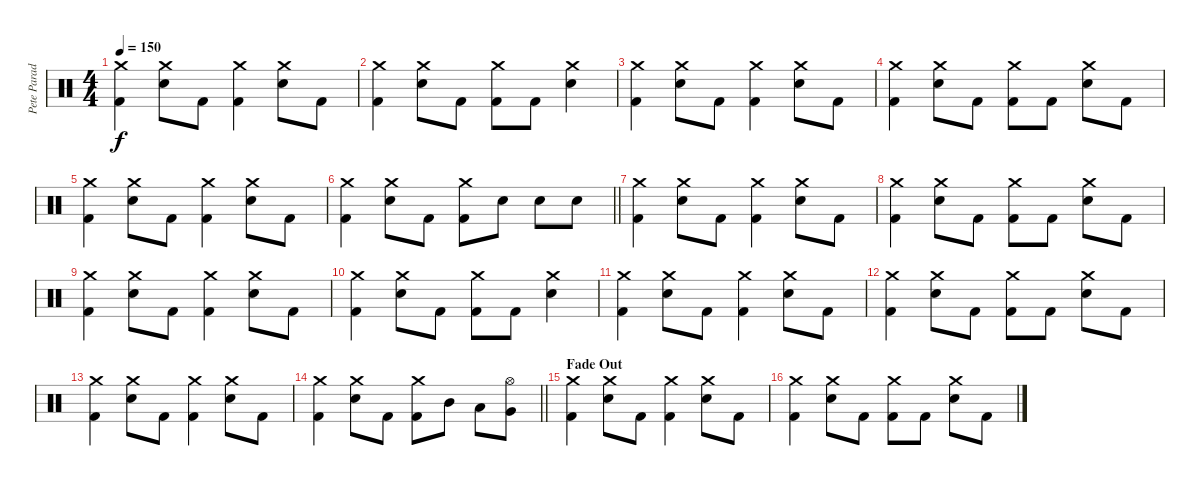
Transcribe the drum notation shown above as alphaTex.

\track ("Pete Parada - Drums" "Pete Parad") {instrument percussion}
\staff {score}
\articulation defaults
\ts (4 4)
\tempo 150
\clef neutral
\ks c
("Crash medium (hit)" "Kick (hit) 2").4{dy f} ("Crash medium (hit)" "Electric Snare (hit)").8 "Kick (hit) 2".8 ("Crash medium (hit)" "Kick (hit) 2").4 ("Crash medium (hit)" "Electric Snare (hit)").8 "Kick (hit) 2".8 |
("Crash medium (hit)" "Kick (hit) 2").4 ("Crash medium (hit)" "Electric Snare (hit)").8 "Kick (hit) 2".8 ("Crash medium (hit)" "Kick (hit) 2").8 "Kick (hit) 2".8 ("Crash medium (hit)" "Electric Snare (hit)").4 |
("Crash medium (hit)" "Kick (hit) 2").4 ("Crash medium (hit)" "Electric Snare (hit)").8 "Kick (hit) 2".8 ("Crash medium (hit)" "Kick (hit) 2").4 ("Crash medium (hit)" "Electric Snare (hit)").8 "Kick (hit) 2".8 |
("Crash medium (hit)" "Kick (hit) 2").4 ("Crash medium (hit)" "Electric Snare (hit)").8 "Kick (hit) 2".8 ("Crash medium (hit)" "Kick (hit) 2").8 "Kick (hit) 2".8 ("Crash medium (hit)" "Electric Snare (hit)").8 "Kick (hit) 2".8 |
("Crash medium (hit)" "Kick (hit) 2").4 ("Crash medium (hit)" "Electric Snare (hit)").8 "Kick (hit) 2".8 ("Crash medium (hit)" "Kick (hit) 2").4 ("Crash medium (hit)" "Electric Snare (hit)").8 "Kick (hit) 2".8 |
\barLineRight lightlight
("Crash medium (hit)" "Kick (hit) 2").4 ("Crash medium (hit)" "Electric Snare (hit)").8 "Kick (hit) 2".8 ("Crash medium (hit)" "Kick (hit) 2").8 "Electric Snare (hit)".8 "Electric Snare (hit)".8 "Electric Snare (hit)".8 |
("Crash medium (hit)" "Kick (hit) 2").4 ("Crash medium (hit)" "Electric Snare (hit)").8 "Kick (hit) 2".8 ("Crash medium (hit)" "Kick (hit) 2").4 ("Crash medium (hit)" "Electric Snare (hit)").8 "Kick (hit) 2".8 |
("Crash medium (hit)" "Kick (hit) 2").4 ("Crash medium (hit)" "Electric Snare (hit)").8 "Kick (hit) 2".8 ("Crash medium (hit)" "Kick (hit) 2").8 "Kick (hit) 2".8 ("Crash medium (hit)" "Electric Snare (hit)").8 "Kick (hit) 2".8 |
("Crash medium (hit)" "Kick (hit) 2").4 ("Crash medium (hit)" "Electric Snare (hit)").8 "Kick (hit) 2".8 ("Crash medium (hit)" "Kick (hit) 2").4 ("Crash medium (hit)" "Electric Snare (hit)").8 "Kick (hit) 2".8 |
("Crash medium (hit)" "Kick (hit) 2").4 ("Crash medium (hit)" "Electric Snare (hit)").8 "Kick (hit) 2".8 ("Crash medium (hit)" "Kick (hit) 2").8 "Kick (hit) 2".8 ("Crash medium (hit)" "Electric Snare (hit)").4 |
("Crash medium (hit)" "Kick (hit) 2").4 ("Crash medium (hit)" "Electric Snare (hit)").8 "Kick (hit) 2".8 ("Crash medium (hit)" "Kick (hit) 2").4 ("Crash medium (hit)" "Electric Snare (hit)").8 "Kick (hit) 2".8 |
("Crash medium (hit)" "Kick (hit) 2").4 ("Crash medium (hit)" "Electric Snare (hit)").8 "Kick (hit) 2".8 ("Crash medium (hit)" "Kick (hit) 2").8 "Kick (hit) 2".8 ("Crash medium (hit)" "Electric Snare (hit)").8 "Kick (hit) 2".8 |
("Crash medium (hit)" "Kick (hit) 2").4 ("Crash medium (hit)" "Electric Snare (hit)").8 "Kick (hit) 2".8 ("Crash medium (hit)" "Kick (hit) 2").4 ("Crash medium (hit)" "Electric Snare (hit)").8 "Kick (hit) 2".8 |
\barLineRight lightlight
("Crash medium (hit)" "Kick (hit) 2").4 ("Crash medium (hit)" "Electric Snare (hit)").8 "Kick (hit) 2".8 ("Crash medium (hit)" "Kick (hit) 2").8 "Mid Tom (hit)".8 "Low Tom (hit)".8 ("Hi-Hat (open)" "Very Low Tom (hit)").8 |
\section ("" "Fade Out")
("Crash medium (hit)" "Kick (hit) 2").4 ("Crash medium (hit)" "Electric Snare (hit)").8 "Kick (hit) 2".8 ("Crash medium (hit)" "Kick (hit) 2").4 ("Crash medium (hit)" "Electric Snare (hit)").8 "Kick (hit) 2".8 |
("Crash medium (hit)" "Kick (hit) 2").4 ("Crash medium (hit)" "Electric Snare (hit)").8 "Kick (hit) 2".8 ("Crash medium (hit)" "Kick (hit) 2").8 "Kick (hit) 2".8 ("Crash medium (hit)" "Electric Snare (hit)").8 "Kick (hit) 2".8
